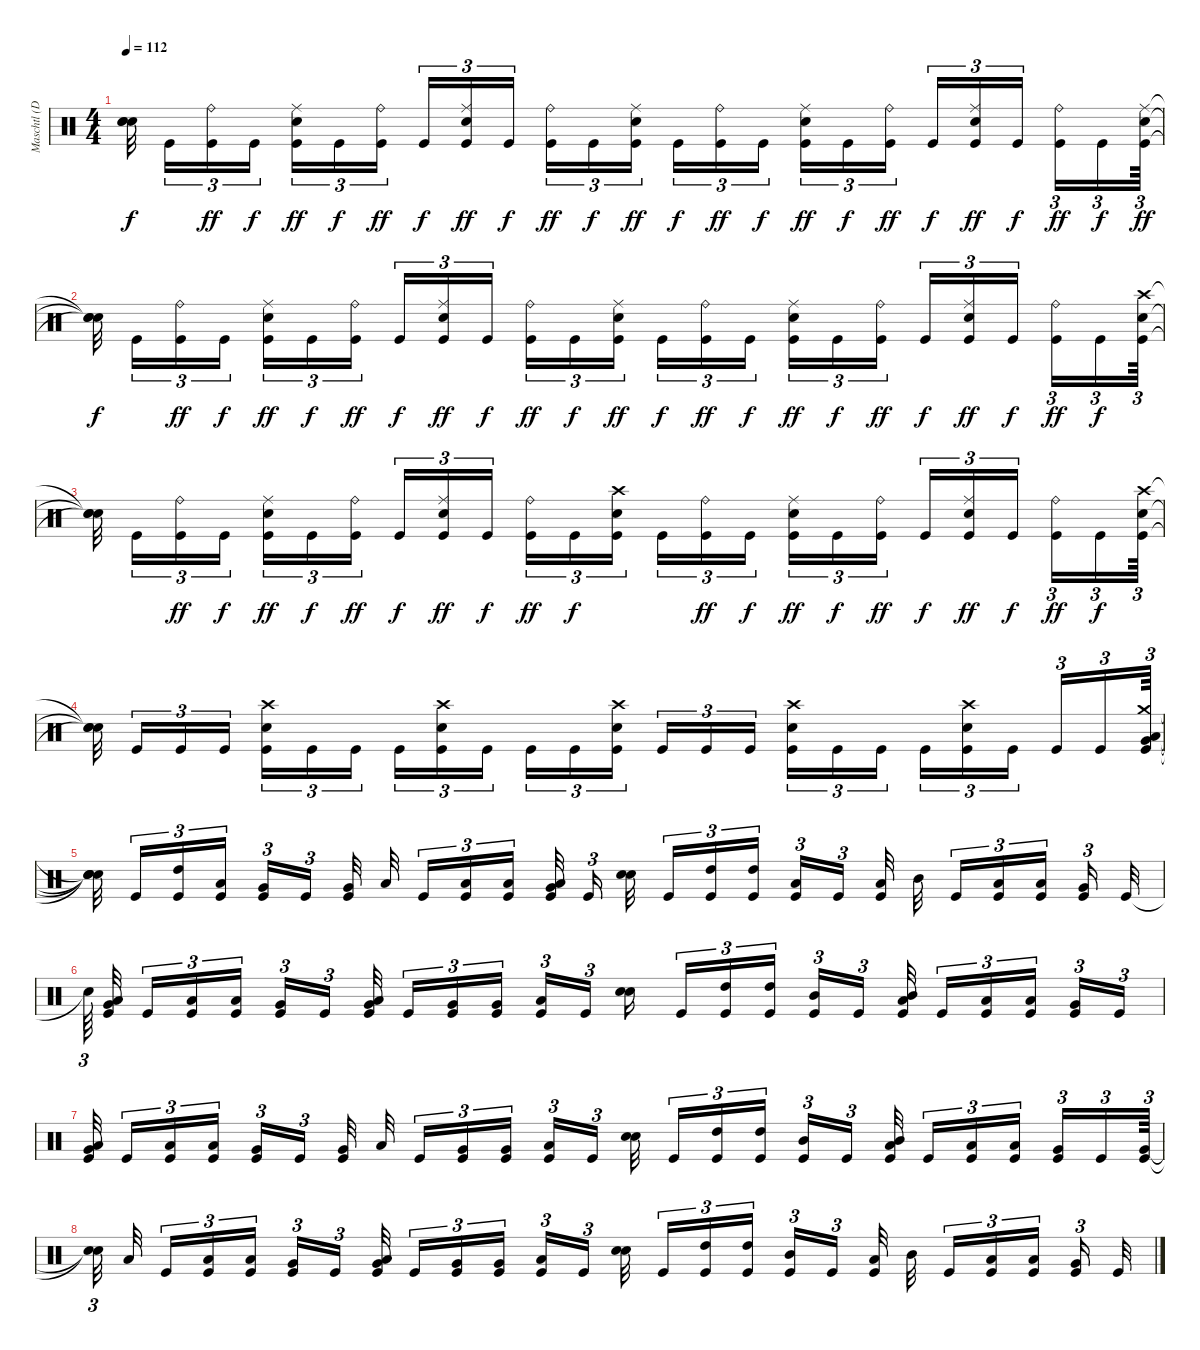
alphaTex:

\track ("Maschtl (Drums)" "Maschtl (D") {instrument percussion}
\staff {score}
\articulation defaults
\ts (4 4)
\tempo 112
\clef neutral
\ks c
("Snare (hit)"{t} "Snare (hit)"{t} "Snare (hit)"{t}).32{dy f} "Kick (hit)".16{tu (3 2)} ("Ride (bell)" "Kick (hit)").16{tu (3 2) dy ff} "Kick (hit)".16{tu (3 2) dy f} ("Ride (middle)" "Electric Snare (hit)" "Kick (hit)").16{tu (3 2) dy ff} "Kick (hit)".16{tu (3 2) dy f} ("Ride (bell)" "Kick (hit)").16{tu (3 2) dy ff} "Kick (hit)".16{tu (3 2) dy f} ("Ride (middle)" "Electric Snare (hit)" "Kick (hit)").16{tu (3 2) dy ff} "Kick (hit)".16{tu (3 2) dy f} ("Ride (bell)" "Kick (hit)").16{tu (3 2) dy ff} "Kick (hit)".16{tu (3 2) dy f} ("Ride (middle)" "Electric Snare (hit)" "Kick (hit)").16{tu (3 2) dy ff} "Kick (hit)".16{tu (3 2) dy f} ("Ride (bell)" "Kick (hit)").16{tu (3 2) dy ff} "Kick (hit)".16{tu (3 2) dy f} ("Ride (middle)" "Electric Snare (hit)" "Kick (hit)").16{tu (3 2) dy ff} "Kick (hit)".16{tu (3 2) dy f} ("Ride (bell)" "Kick (hit)").16{tu (3 2) dy ff} "Kick (hit)".16{tu (3 2) dy f} ("Ride (middle)" "Electric Snare (hit)" "Kick (hit)").16{tu (3 2) dy ff} "Kick (hit)".16{tu (3 2) dy f} ("Ride (bell)" "Kick (hit)").16{tu (3 2) dy ff} "Kick (hit)".16{tu (3 2) dy f} ("Ride (middle)" "Electric Snare (hit)" "Kick (hit)").64{tu (3 2) dy ff} |
("Snare (hit)"{t} "Snare (hit)"{t} "Snare (hit)"{t}).32{dy f} "Kick (hit)".16{tu (3 2)} ("Ride (bell)" "Kick (hit)").16{tu (3 2) dy ff} "Kick (hit)".16{tu (3 2) dy f} ("Ride (middle)" "Electric Snare (hit)" "Kick (hit)").16{tu (3 2) dy ff} "Kick (hit)".16{tu (3 2) dy f} ("Ride (bell)" "Kick (hit)").16{tu (3 2) dy ff} "Kick (hit)".16{tu (3 2) dy f} ("Ride (middle)" "Electric Snare (hit)" "Kick (hit)").16{tu (3 2) dy ff} "Kick (hit)".16{tu (3 2) dy f} ("Ride (bell)" "Kick (hit)").16{tu (3 2) dy ff} "Kick (hit)".16{tu (3 2) dy f} ("Ride (middle)" "Electric Snare (hit)" "Kick (hit)").16{tu (3 2) dy ff} "Kick (hit)".16{tu (3 2) dy f} ("Ride (bell)" "Kick (hit)").16{tu (3 2) dy ff} "Kick (hit)".16{tu (3 2) dy f} ("Ride (middle)" "Electric Snare (hit)" "Kick (hit)").16{tu (3 2) dy ff} "Kick (hit)".16{tu (3 2) dy f} ("Ride (bell)" "Kick (hit)").16{tu (3 2) dy ff} "Kick (hit)".16{tu (3 2) dy f} ("Ride (middle)" "Electric Snare (hit)" "Kick (hit)").16{tu (3 2) dy ff} "Kick (hit)".16{tu (3 2) dy f} ("Ride (bell)" "Kick (hit)").16{tu (3 2) dy ff} "Kick (hit)".16{tu (3 2) dy f} ("Crash high (hit)" "Electric Snare (hit)" "Kick (hit)").64{tu (3 2)} |
("Snare (hit)"{t} "Snare (hit)"{t} "Snare (hit)"{t}).32 "Kick (hit)".16{tu (3 2)} ("Ride (bell)" "Kick (hit)").16{tu (3 2) dy ff} "Kick (hit)".16{tu (3 2) dy f} ("Ride (middle)" "Electric Snare (hit)" "Kick (hit)").16{tu (3 2) dy ff} "Kick (hit)".16{tu (3 2) dy f} ("Ride (bell)" "Kick (hit)").16{tu (3 2) dy ff} "Kick (hit)".16{tu (3 2) dy f} ("Ride (middle)" "Electric Snare (hit)" "Kick (hit)").16{tu (3 2) dy ff} "Kick (hit)".16{tu (3 2) dy f} ("Ride (bell)" "Kick (hit)").16{tu (3 2) dy ff} "Kick (hit)".16{tu (3 2) dy f} ("Crash high (hit)" "Electric Snare (hit)" "Kick (hit)").16{tu (3 2)} "Kick (hit)".16{tu (3 2)} ("Ride (bell)" "Kick (hit)").16{tu (3 2) dy ff} "Kick (hit)".16{tu (3 2) dy f} ("Ride (middle)" "Electric Snare (hit)" "Kick (hit)").16{tu (3 2) dy ff} "Kick (hit)".16{tu (3 2) dy f} ("Ride (bell)" "Kick (hit)").16{tu (3 2) dy ff} "Kick (hit)".16{tu (3 2) dy f} ("Ride (middle)" "Electric Snare (hit)" "Kick (hit)").16{tu (3 2) dy ff} "Kick (hit)".16{tu (3 2) dy f} ("Ride (bell)" "Kick (hit)").16{tu (3 2) dy ff} "Kick (hit)".16{tu (3 2) dy f} ("Crash high (hit)" "Electric Snare (hit)" "Kick (hit)").64{tu (3 2)} |
("Snare (hit)"{t} "Snare (hit)"{t} "Snare (hit)"{t}).32 "Kick (hit)".16{tu (3 2)} "Kick (hit)".16{tu (3 2)} "Kick (hit)".16{tu (3 2)} ("Crash high (hit)" "Electric Snare (hit)" "Kick (hit)").16{tu (3 2)} "Kick (hit)".16{tu (3 2)} "Kick (hit)".16{tu (3 2)} "Kick (hit)".16{tu (3 2)} ("Crash high (hit)" "Electric Snare (hit)" "Kick (hit)").16{tu (3 2)} "Kick (hit)".16{tu (3 2)} "Kick (hit)".16{tu (3 2)} "Kick (hit)".16{tu (3 2)} ("Crash high (hit)" "Electric Snare (hit)" "Kick (hit)").16{tu (3 2)} "Kick (hit)".16{tu (3 2)} "Kick (hit)".16{tu (3 2)} "Kick (hit)".16{tu (3 2)} ("Crash high (hit)" "Electric Snare (hit)" "Kick (hit)").16{tu (3 2)} "Kick (hit)".16{tu (3 2)} "Kick (hit)".16{tu (3 2)} "Kick (hit)".16{tu (3 2)} ("Crash high (hit)" "Electric Snare (hit)" "Kick (hit)").16{tu (3 2)} "Kick (hit)".16{tu (3 2)} "Kick (hit)".16{tu (3 2)} "Kick (hit)".16{tu (3 2)} ("Crash medium (hit)" "Low Tom (hit)" "Very Low Tom (hit)" "Kick (hit)").64{tu (3 2)} |
("Snare (hit)"{t} "Snare (hit)"{t} "Snare (hit)"{t} "Snare (hit)"{t}).32 "Kick (hit)".16{tu (3 2)} ("High Tom (hit)" "Kick (hit)").16{tu (3 2)} ("Low Tom (hit)" "Kick (hit)").16{tu (3 2)} ("Very Low Tom (hit)" "Kick (hit)").16{tu (3 2)} "Kick (hit)".16{tu (3 2)} ("Kick (hit)" "Very Low Tom (hit)").32 "Low Tom (hit)".32 "Kick (hit)".16{tu (3 2)} ("Low Tom (hit)" "Kick (hit)").16{tu (3 2)} ("Low Tom (hit)" "Kick (hit)").16{tu (3 2)} ("Kick (hit)" "Very Low Tom (hit)" "Low Tom (hit)").32 "Kick (hit)".16{tu (3 2)} ("Electric Snare (hit)" "Electric Snare (hit)").32 "Kick (hit)".16{tu (3 2)} ("High Tom (hit)" "Kick (hit)").16{tu (3 2)} ("High Tom (hit)" "Kick (hit)").16{tu (3 2)} ("Low Tom (hit)" "Kick (hit)").16{tu (3 2)} "Kick (hit)".16{tu (3 2)} ("Kick (hit)" "Low Tom (hit)").32 "Mid Tom (hit)".32 "Kick (hit)".16{tu (3 2)} ("Low Tom (hit)" "Kick (hit)").16{tu (3 2)} ("Low Tom (hit)" "Kick (hit)").16{tu (3 2)} ("Very Low Tom (hit)" "Kick (hit)").16{tu (3 2)} "Kick (hit)".32 |
"Snare (hit)"{t}.64{tu (3 2)} ("Kick (hit)" "Very Low Tom (hit)" "Low Tom (hit)").32 "Kick (hit)".16{tu (3 2)} ("Low Tom (hit)" "Kick (hit)").16{tu (3 2)} ("Low Tom (hit)" "Kick (hit)").16{tu (3 2)} ("Very Low Tom (hit)" "Kick (hit)").16{tu (3 2)} "Kick (hit)".16{tu (3 2)} ("Kick (hit)" "Very Low Tom (hit)" "Low Tom (hit)").32 "Kick (hit)".16{tu (3 2)} ("Very Low Tom (hit)" "Kick (hit)").16{tu (3 2)} ("Very Low Tom (hit)" "Kick (hit)").16{tu (3 2)} ("Low Floor Tom (hit)" "Kick (hit)").16{tu (3 2)} "Kick (hit)".16{tu (3 2)} ("Electric Snare (hit)" "Electric Snare (hit)").16 "Kick (hit)".16{tu (3 2)} ("High Tom (hit)" "Kick (hit)").16{tu (3 2)} ("High Tom (hit)" "Kick (hit)").16{tu (3 2)} ("Mid Tom (hit)" "Kick (hit)").16{tu (3 2)} "Kick (hit)".16{tu (3 2)} ("Kick (hit)" "Low Tom (hit)" "Mid Tom (hit)").32 "Kick (hit)".16{tu (3 2)} ("Low Tom (hit)" "Kick (hit)").16{tu (3 2)} ("Low Tom (hit)" "Kick (hit)").16{tu (3 2)} ("Very Low Tom (hit)" "Kick (hit)").16{tu (3 2)} "Kick (hit)".16{tu (3 2)} |
("Kick (hit)" "Very Low Tom (hit)" "Low Tom (hit)").32 "Kick (hit)".16{tu (3 2)} ("Low Tom (hit)" "Kick (hit)").16{tu (3 2)} ("Low Tom (hit)" "Kick (hit)").16{tu (3 2)} ("Very Low Tom (hit)" "Kick (hit)").16{tu (3 2)} "Kick (hit)".16{tu (3 2)} ("Kick (hit)" "Very Low Tom (hit)").32 "Low Tom (hit)".32 "Kick (hit)".16{tu (3 2)} ("Very Low Tom (hit)" "Kick (hit)").16{tu (3 2)} ("Very Low Tom (hit)" "Kick (hit)").16{tu (3 2)} ("Low Floor Tom (hit)" "Kick (hit)").16{tu (3 2)} "Kick (hit)".16{tu (3 2)} ("Electric Snare (hit)" "Electric Snare (hit)").32 "Kick (hit)".16{tu (3 2)} ("High Tom (hit)" "Kick (hit)").16{tu (3 2)} ("High Tom (hit)" "Kick (hit)").16{tu (3 2)} ("Mid Tom (hit)" "Kick (hit)").16{tu (3 2)} "Kick (hit)".16{tu (3 2)} ("Kick (hit)" "Low Tom (hit)" "Mid Tom (hit)").32 "Kick (hit)".16{tu (3 2)} ("Low Tom (hit)" "Kick (hit)").16{tu (3 2)} ("Low Tom (hit)" "Kick (hit)").16{tu (3 2)} ("Very Low Tom (hit)" "Kick (hit)").16{tu (3 2)} "Kick (hit)".16{tu (3 2)} ("Kick (hit)" "Very Low Tom (hit)").64{tu (3 2)} |
("Snare (hit)"{t} "Snare (hit)"{t}).32{tu (3 2)} "Low Tom (hit)".32 "Kick (hit)".16{tu (3 2)} ("Low Tom (hit)" "Kick (hit)").16{tu (3 2)} ("Low Tom (hit)" "Kick (hit)").16{tu (3 2)} ("Very Low Tom (hit)" "Kick (hit)").16{tu (3 2)} "Kick (hit)".16{tu (3 2)} ("Kick (hit)" "Very Low Tom (hit)" "Low Tom (hit)").32 "Kick (hit)".16{tu (3 2)} ("Very Low Tom (hit)" "Kick (hit)").16{tu (3 2)} ("Very Low Tom (hit)" "Kick (hit)").16{tu (3 2)} ("Low Floor Tom (hit)" "Kick (hit)").16{tu (3 2)} "Kick (hit)".16{tu (3 2)} ("Electric Snare (hit)" "Electric Snare (hit)").32 "Kick (hit)".16{tu (3 2)} ("High Tom (hit)" "Kick (hit)").16{tu (3 2)} ("High Tom (hit)" "Kick (hit)").16{tu (3 2)} ("Mid Tom (hit)" "Kick (hit)").16{tu (3 2)} "Kick (hit)".16{tu (3 2)} ("Kick (hit)" "Low Tom (hit)").32 "Mid Tom (hit)".32 "Kick (hit)".16{tu (3 2)} ("Low Tom (hit)" "Kick (hit)").16{tu (3 2)} ("Low Tom (hit)" "Kick (hit)").16{tu (3 2)} ("Very Low Tom (hit)" "Kick (hit)").16{tu (3 2)} "Kick (hit)".32
